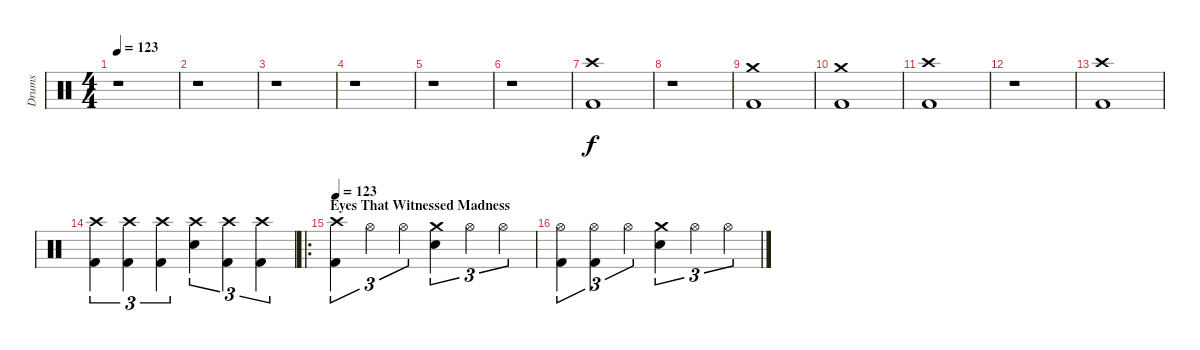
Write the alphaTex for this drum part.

\track ("Drums" "Drums") {instrument percussion}
\staff {score}
\articulation defaults
\ts (4 4)
\tempo 123
\clef neutral
\ks c
r.1{dy f} |
r.1 |
r.1 |
r.1 |
r.1 |
r.1 |
("Crash high (hit)" "Kick (hit) 2").1 |
r.1 |
("Crash medium (hit)" "Kick (hit) 2").1 |
("Crash medium (hit)" "Kick (hit) 2").1 |
("Crash high (hit)" "Kick (hit) 2").1 |
r.1 |
("Crash high (hit)" "Kick (hit) 2").1 |
("Crash high (hit)" "Kick (hit) 2").4{tu (3 2)} ("Crash high (hit)" "Kick (hit) 2").4{tu (3 2)} ("Crash high (hit)" "Kick (hit) 2").4{tu (3 2)} ("Crash high (hit)" "Electric Snare (hit)").4{tu (3 2)} ("Crash high (hit)" "Kick (hit) 2").4{tu (3 2)} ("Crash high (hit)" "Kick (hit) 2").4{tu (3 2)} |
\ro
\section ("" "Eyes That Witnessed Madness")
\tempo 123
("Crash high (hit)" "Kick (hit) 2").4{tu (3 2)} "Hi-Hat (open)".4{tu (3 2)} "Hi-Hat (open)".4{tu (3 2)} ("Crash medium (hit)" "Electric Snare (hit)").4{tu (3 2)} "Hi-Hat (open)".4{tu (3 2)} "Hi-Hat (open)".4{tu (3 2)} |
("Hi-Hat (open)" "Kick (hit) 2").4{tu (3 2)} ("Hi-Hat (open)" "Kick (hit) 2").4{tu (3 2)} "Hi-Hat (open)".4{tu (3 2)} ("Crash medium (hit)" "Electric Snare (hit)").4{tu (3 2)} "Hi-Hat (open)".4{tu (3 2)} "Hi-Hat (open)".4{tu (3 2)}
